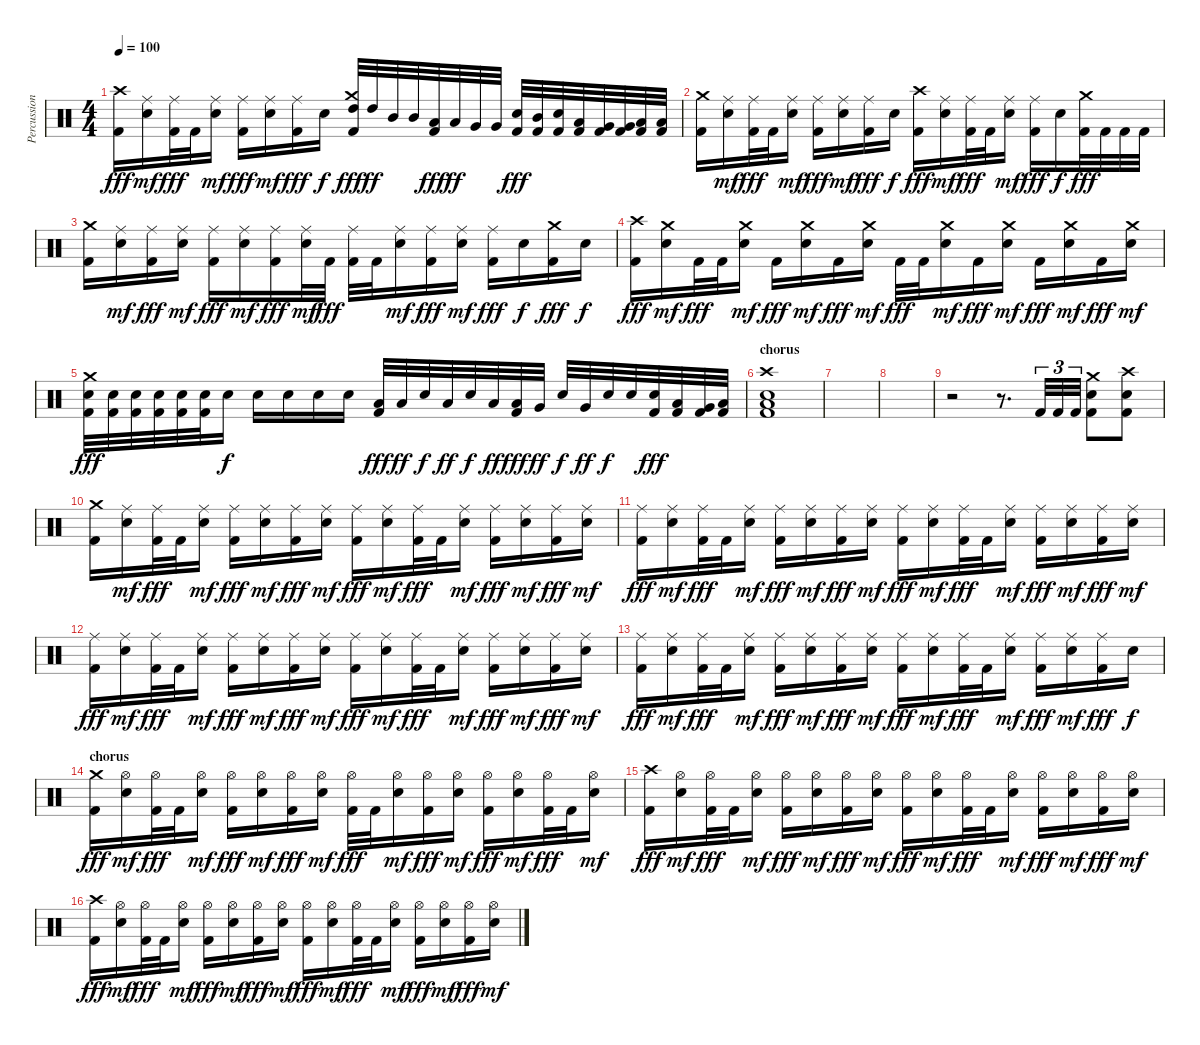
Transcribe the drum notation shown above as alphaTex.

\track ("Percussion" "Percussion") {instrument percussion}
\staff {score}
\articulation defaults
\ts (4 4)
\tempo 100
\clef neutral
\ks c
("Crash high (hit)" "Kick (hit) 2").16{dy fff} ("Ride (middle)" "Snare (hit) 2").16{dy mf} ("Ride (middle)" "Kick (hit) 2").32{dy fff} "Kick (hit) 2".32 ("Ride (middle)" "Snare (hit) 2").16{dy mf} ("Ride (middle)" "Kick (hit) 2").16{dy fff} ("Ride (middle)" "Snare (hit) 2").16{dy mf} ("Ride (middle)" "Kick (hit) 2").16{dy fff} "Snare (hit) 2".16{dy f} ("Crash medium (hit)" "High Tom (hit)" "Kick (hit) 2").32{dy fff} "High Tom (hit)".32{dy ff} "Mid Tom (hit)".32 "Mid Tom (hit)".32 ("Low Tom (hit)" "Kick (hit) 2").32{dy fff} "Low Tom (hit)".32{dy ff} "Very Low Tom (hit)".32 "Very Low Tom (hit)".32 ("Snare (hit) 2" "Kick (hit) 2").32{dy fff} ("Mid Tom (hit)" "Kick (hit) 2").32 ("Snare (hit) 2" "Kick (hit) 2").32 ("Low Tom (hit)" "Kick (hit) 2").32 ("Very Low Tom (hit)" "Kick (hit) 2").32 ("Very Low Tom (hit)" "Kick (hit) 2").32 ("Low Floor Tom (hit)" "Kick (hit) 2").32 ("Low Floor Tom (hit)" "Kick (hit) 2").32 |
("Crash medium (hit)" "Kick (hit) 2").16 ("Ride (middle)" "Snare (hit) 2").16{dy mf} ("Ride (middle)" "Kick (hit) 2").32{dy fff} "Kick (hit) 2".32 ("Ride (middle)" "Snare (hit) 2").16{dy mf} ("Ride (middle)" "Kick (hit) 2").16{dy fff} ("Ride (middle)" "Snare (hit) 2").16{dy mf} ("Ride (middle)" "Kick (hit) 2").16{dy fff} "Snare (hit) 2".16{dy f} ("Crash high (hit)" "Kick (hit) 2").16{dy fff} ("Ride (middle)" "Snare (hit) 2").16{dy mf} ("Ride (middle)" "Kick (hit) 2").32{dy fff} "Kick (hit) 2".32 ("Ride (middle)" "Snare (hit) 2").16{dy mf} ("Ride (middle)" "Kick (hit) 2").16{dy fff} "Snare (hit) 2".16{dy f} ("Crash medium (hit)" "Kick (hit) 2").32{dy fff} "Kick (hit) 2".32 "Kick (hit) 2".32 "Kick (hit) 2".32 |
("Crash medium (hit)" "Kick (hit) 2").16 ("Ride (middle)" "Snare (hit) 2").16{dy mf} ("Ride (middle)" "Kick (hit) 2").16{dy fff} ("Ride (middle)" "Snare (hit) 2").16{dy mf} ("Ride (middle)" "Kick (hit) 2").16{dy fff} ("Ride (middle)" "Snare (hit) 2").16{dy mf} ("Ride (middle)" "Kick (hit) 2").16{dy fff} ("Ride (middle)" "Snare (hit) 2").32{dy mf} "Kick (hit) 2".32{dy fff} ("Ride (middle)" "Kick (hit) 2").32 "Kick (hit) 2".32 ("Ride (middle)" "Snare (hit) 2").16{dy mf} ("Ride (middle)" "Kick (hit) 2").16{dy fff} ("Ride (middle)" "Snare (hit) 2").16{dy mf} ("Ride (middle)" "Kick (hit) 2").16{dy fff} "Snare (hit) 2".16{dy f} ("Crash medium (hit)" "Kick (hit) 2").16{dy fff} "Snare (hit) 2".16{dy f} |
("Crash high (hit)" "Kick (hit) 2").16{dy fff} ("Crash medium (hit)" "Snare (hit) 2").16{dy mf} "Kick (hit) 2".32{dy fff} "Kick (hit) 2".32 ("Crash medium (hit)" "Snare (hit) 2").16{dy mf} "Kick (hit) 2".16{dy fff} ("Crash medium (hit)" "Snare (hit) 2").16{dy mf} "Kick (hit) 2".16{dy fff} ("Crash medium (hit)" "Snare (hit) 2").16{dy mf} "Kick (hit) 2".32{dy fff} "Kick (hit) 2".32 ("Crash medium (hit)" "Snare (hit) 2").16{dy mf} "Kick (hit) 2".16{dy fff} ("Crash medium (hit)" "Snare (hit) 2").16{dy mf} "Kick (hit) 2".16{dy fff} ("Crash medium (hit)" "Snare (hit) 2").16{dy mf} "Kick (hit) 2".16{dy fff} ("Crash medium (hit)" "Snare (hit) 2").16{dy mf} |
("Crash medium (hit)" "Snare (hit) 2" "Kick (hit) 2").32{dy fff} ("Snare (hit) 2" "Kick (hit) 2").32 ("Snare (hit) 2" "Kick (hit) 2").32 ("Snare (hit) 2" "Kick (hit) 2").32 ("Snare (hit) 2" "Kick (hit) 2").32 ("Snare (hit) 2" "Kick (hit) 2").32 "Snare (hit) 2".16{dy f} "Snare (hit) 2".16 "Snare (hit) 2".16 "Snare (hit) 2".16 "Snare (hit) 2".16 ("Low Tom (hit)" "Kick (hit) 2").32{dy fff} "Low Tom (hit)".32{dy ff} "Snare (hit) 2".32{dy f} "Low Tom (hit)".32{dy ff} "Snare (hit) 2".32{dy f} "Low Tom (hit)".32{dy ff} ("Low Tom (hit)" "Kick (hit) 2").32{dy fff} "Very Low Tom (hit)".32{dy ff} "Snare (hit) 2".32{dy f} "Very Low Tom (hit)".32{dy ff} "Snare (hit) 2".32{dy f} "Snare (hit) 2".32 ("Snare (hit) 2" "Kick (hit) 2").32{dy fff} ("Low Tom (hit)" "Kick (hit) 2").32 ("Very Low Tom (hit)" "Kick (hit) 2").32 ("Low Floor Tom (hit)" "Kick (hit) 2").32 |
\section ("" "chorus")
("Crash high (hit)" "Low Floor Tom (hit)" "Snare (hit) 2" "Kick (hit) 2").1 |
|
|
r.2 r.8{d} "Kick (hit) 2".32{tu (3 2)} "Kick (hit) 2".32{tu (3 2)} "Kick (hit) 2".32{tu (3 2)} ("Crash medium (hit)" "Snare (hit) 2" "Kick (hit) 2").8 ("Crash high (hit)" "Snare (hit) 2" "Kick (hit) 2").8 |
("Crash medium (hit)" "Kick (hit) 2").16 ("Ride (middle)" "Snare (hit) 2").16{dy mf} ("Ride (middle)" "Kick (hit) 2").32{dy fff} "Kick (hit) 2".32 ("Ride (middle)" "Snare (hit) 2").16{dy mf} ("Ride (middle)" "Kick (hit) 2").16{dy fff} ("Ride (middle)" "Snare (hit) 2").16{dy mf} ("Ride (middle)" "Kick (hit) 2").16{dy fff} ("Ride (middle)" "Snare (hit) 2").16{dy mf} ("Ride (middle)" "Kick (hit) 2").16{dy fff} ("Ride (middle)" "Snare (hit) 2").16{dy mf} ("Ride (middle)" "Kick (hit) 2").32{dy fff} "Kick (hit) 2".32 ("Ride (middle)" "Snare (hit) 2").16{dy mf} ("Ride (middle)" "Kick (hit) 2").16{dy fff} ("Ride (middle)" "Snare (hit) 2").16{dy mf} ("Ride (middle)" "Kick (hit) 2").16{dy fff} ("Ride (middle)" "Snare (hit) 2").16{dy mf} |
("Ride (middle)" "Kick (hit) 2").16{dy fff} ("Ride (middle)" "Snare (hit) 2").16{dy mf} ("Ride (middle)" "Kick (hit) 2").32{dy fff} "Kick (hit) 2".32 ("Ride (middle)" "Snare (hit) 2").16{dy mf} ("Ride (middle)" "Kick (hit) 2").16{dy fff} ("Ride (middle)" "Snare (hit) 2").16{dy mf} ("Ride (middle)" "Kick (hit) 2").16{dy fff} ("Ride (middle)" "Snare (hit) 2").16{dy mf} ("Ride (middle)" "Kick (hit) 2").16{dy fff} ("Ride (middle)" "Snare (hit) 2").16{dy mf} ("Ride (middle)" "Kick (hit) 2").32{dy fff} "Kick (hit) 2".32 ("Ride (middle)" "Snare (hit) 2").16{dy mf} ("Ride (middle)" "Kick (hit) 2").16{dy fff} ("Ride (middle)" "Snare (hit) 2").16{dy mf} ("Ride (middle)" "Kick (hit) 2").16{dy fff} ("Ride (middle)" "Snare (hit) 2").16{dy mf} |
("Ride (middle)" "Kick (hit) 2").16{dy fff} ("Ride (middle)" "Snare (hit) 2").16{dy mf} ("Ride (middle)" "Kick (hit) 2").32{dy fff} "Kick (hit) 2".32 ("Ride (middle)" "Snare (hit) 2").16{dy mf} ("Ride (middle)" "Kick (hit) 2").16{dy fff} ("Ride (middle)" "Snare (hit) 2").16{dy mf} ("Ride (middle)" "Kick (hit) 2").16{dy fff} ("Ride (middle)" "Snare (hit) 2").16{dy mf} ("Ride (middle)" "Kick (hit) 2").16{dy fff} ("Ride (middle)" "Snare (hit) 2").16{dy mf} ("Ride (middle)" "Kick (hit) 2").32{dy fff} "Kick (hit) 2".32 ("Ride (middle)" "Snare (hit) 2").16{dy mf} ("Ride (middle)" "Kick (hit) 2").16{dy fff} ("Ride (middle)" "Snare (hit) 2").16{dy mf} ("Ride (middle)" "Kick (hit) 2").16{dy fff} ("Ride (middle)" "Snare (hit) 2").16{dy mf} |
("Ride (middle)" "Kick (hit) 2").16{dy fff} ("Ride (middle)" "Snare (hit) 2").16{dy mf} ("Ride (middle)" "Kick (hit) 2").32{dy fff} "Kick (hit) 2".32 ("Ride (middle)" "Snare (hit) 2").16{dy mf} ("Ride (middle)" "Kick (hit) 2").16{dy fff} ("Ride (middle)" "Snare (hit) 2").16{dy mf} ("Ride (middle)" "Kick (hit) 2").16{dy fff} ("Ride (middle)" "Snare (hit) 2").16{dy mf} ("Ride (middle)" "Kick (hit) 2").16{dy fff} ("Ride (middle)" "Snare (hit) 2").16{dy mf} ("Ride (middle)" "Kick (hit) 2").32{dy fff} "Kick (hit) 2".32 ("Ride (middle)" "Snare (hit) 2").16{dy mf} ("Ride (middle)" "Kick (hit) 2").16{dy fff} ("Ride (middle)" "Snare (hit) 2").16{dy mf} ("Ride (middle)" "Kick (hit) 2").16{dy fff} "Snare (hit) 2".16{dy f} |
\section ("" "chorus")
("Crash medium (hit)" "Kick (hit) 2").16{dy fff} ("Hi-Hat (open)" "Snare (hit) 2").16{dy mf} ("Hi-Hat (open)" "Kick (hit) 2").32{dy fff} "Kick (hit) 2".32 ("Hi-Hat (open)" "Snare (hit) 2").16{dy mf} ("Hi-Hat (open)" "Kick (hit) 2").16{dy fff} ("Hi-Hat (open)" "Snare (hit) 2").16{dy mf} ("Hi-Hat (open)" "Kick (hit) 2").16{dy fff} ("Hi-Hat (open)" "Snare (hit) 2").16{dy mf} ("Hi-Hat (open)" "Kick (hit) 2").32{dy fff} "Kick (hit) 2".32 ("Hi-Hat (open)" "Snare (hit) 2").16{dy mf} ("Hi-Hat (open)" "Kick (hit) 2").16{dy fff} ("Hi-Hat (open)" "Snare (hit) 2").16{dy mf} ("Hi-Hat (open)" "Kick (hit) 2").16{dy fff} ("Hi-Hat (open)" "Snare (hit) 2").16{dy mf} ("Hi-Hat (open)" "Kick (hit) 2").32{dy fff} "Kick (hit) 2".32 ("Hi-Hat (open)" "Snare (hit) 2").16{dy mf} |
("Crash high (hit)" "Kick (hit) 2").16{dy fff} ("Hi-Hat (open)" "Snare (hit) 2").16{dy mf} ("Hi-Hat (open)" "Kick (hit) 2").32{dy fff} "Kick (hit) 2".32 ("Hi-Hat (open)" "Snare (hit) 2").16{dy mf} ("Hi-Hat (open)" "Kick (hit) 2").16{dy fff} ("Hi-Hat (open)" "Snare (hit) 2").16{dy mf} ("Hi-Hat (open)" "Kick (hit) 2").16{dy fff} ("Hi-Hat (open)" "Snare (hit) 2").16{dy mf} ("Hi-Hat (open)" "Kick (hit) 2").16{dy fff} ("Hi-Hat (open)" "Snare (hit) 2").16{dy mf} ("Hi-Hat (open)" "Kick (hit) 2").32{dy fff} "Kick (hit) 2".32 ("Hi-Hat (open)" "Snare (hit) 2").16{dy mf} ("Hi-Hat (open)" "Kick (hit) 2").16{dy fff} ("Hi-Hat (open)" "Snare (hit) 2").16{dy mf} ("Hi-Hat (open)" "Kick (hit) 2").16{dy fff} ("Hi-Hat (open)" "Snare (hit) 2").16{dy mf} |
("Crash high (hit)" "Kick (hit) 2").16{dy fff} ("Hi-Hat (open)" "Snare (hit) 2").16{dy mf} ("Hi-Hat (open)" "Kick (hit) 2").32{dy fff} "Kick (hit) 2".32 ("Hi-Hat (open)" "Snare (hit) 2").16{dy mf} ("Hi-Hat (open)" "Kick (hit) 2").16{dy fff} ("Hi-Hat (open)" "Snare (hit) 2").16{dy mf} ("Hi-Hat (open)" "Kick (hit) 2").16{dy fff} ("Hi-Hat (open)" "Snare (hit) 2").16{dy mf} ("Hi-Hat (open)" "Kick (hit) 2").16{dy fff} ("Hi-Hat (open)" "Snare (hit) 2").16{dy mf} ("Hi-Hat (open)" "Kick (hit) 2").32{dy fff} "Kick (hit) 2".32 ("Hi-Hat (open)" "Snare (hit) 2").16{dy mf} ("Hi-Hat (open)" "Kick (hit) 2").16{dy fff} ("Hi-Hat (open)" "Snare (hit) 2").16{dy mf} ("Hi-Hat (open)" "Kick (hit) 2").16{dy fff} ("Hi-Hat (open)" "Snare (hit) 2").16{dy mf}
